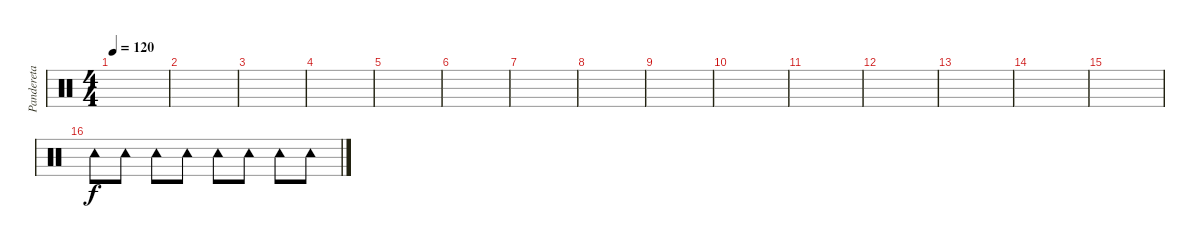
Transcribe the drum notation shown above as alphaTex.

\track ("Pandereta" "Pandereta") {instrument percussion}
\staff {score}
\articulation defaults
\ts (4 4)
\tempo 120
\clef neutral
\ks c
|
|
|
|
|
|
|
|
|
|
|
|
|
|
|
"Tambourine (hit)".8 "Tambourine (hit)".8 "Tambourine (hit)".8 "Tambourine (hit)".8 "Tambourine (hit)".8 "Tambourine (hit)".8 "Tambourine (hit)".8 "Tambourine (hit)".8
